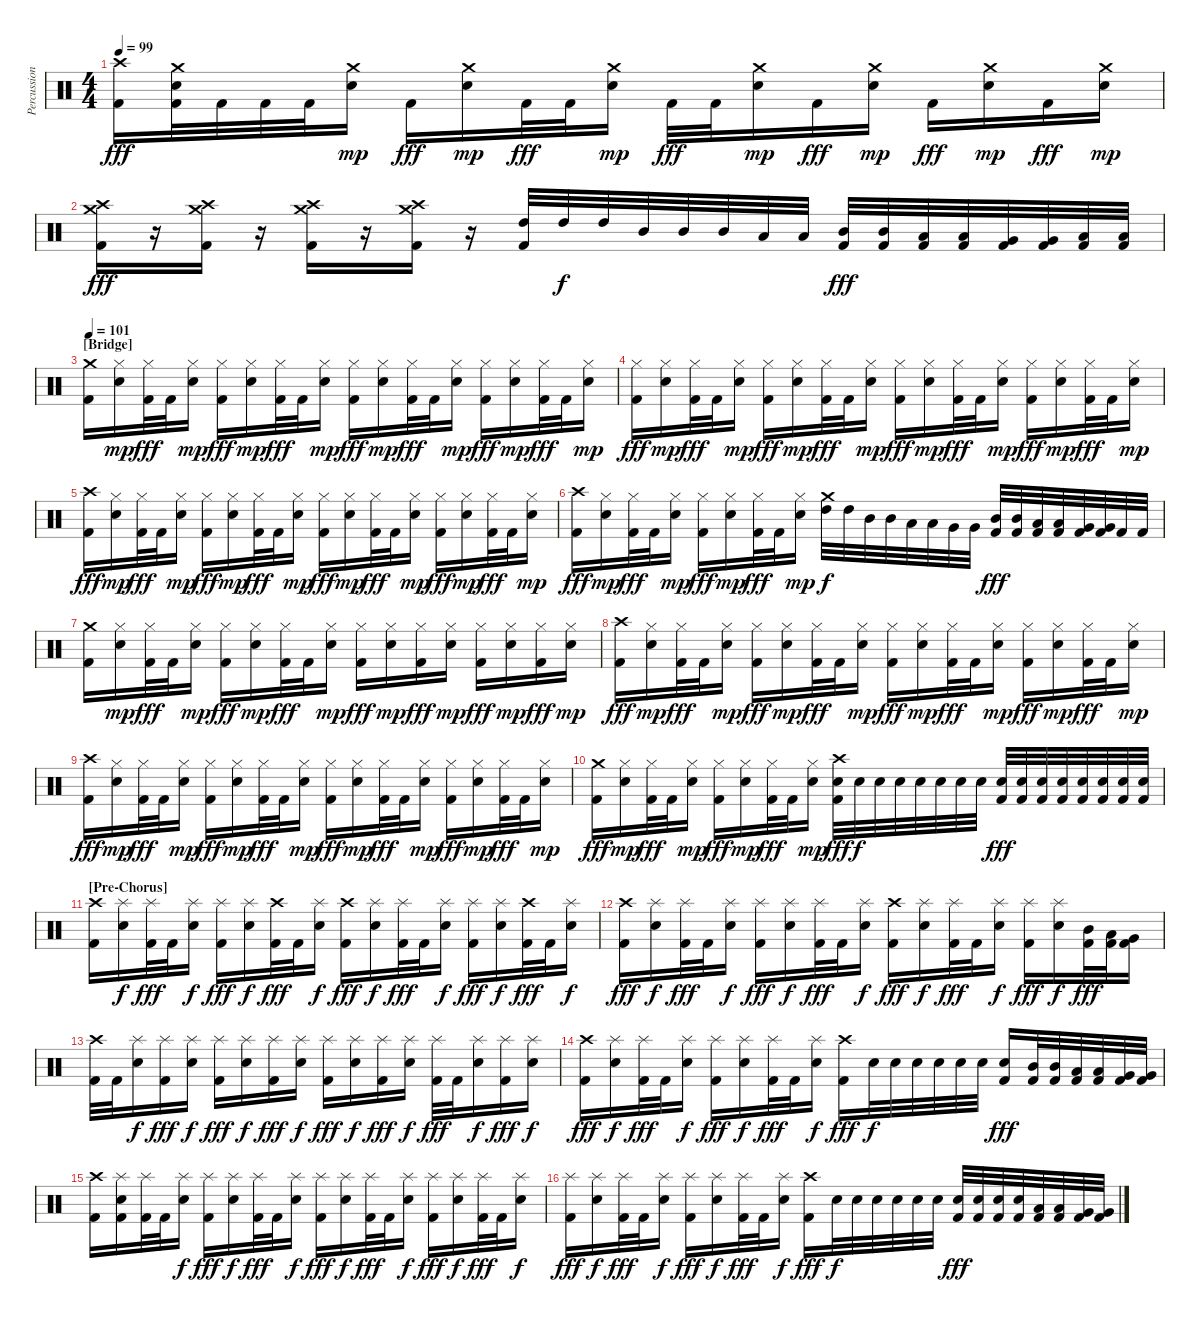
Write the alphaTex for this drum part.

\track ("Percussion" "Percussion") {instrument percussion}
\staff {score}
\articulation defaults
\ts (4 4)
\tempo 99
\clef neutral
\ks c
("Crash high (hit)" "Kick (hit) 2").16{dy fff} ("Crash medium (hit)" "Snare (hit) 2" "Kick (hit) 2").32 "Kick (hit) 2".32 "Kick (hit) 2".32 "Kick (hit) 2".32 ("Crash medium (hit)" "Snare (hit) 2").16{dy mp} "Kick (hit) 2".16{dy fff} ("Crash medium (hit)" "Snare (hit) 2").16{dy mp} "Kick (hit) 2".32{dy fff} "Kick (hit) 2".32 ("Crash medium (hit)" "Snare (hit) 2").16{dy mp} "Kick (hit) 2".32{dy fff} "Kick (hit) 2".32 ("Crash medium (hit)" "Snare (hit) 2").16{dy mp} "Kick (hit) 2".16{dy fff} ("Crash medium (hit)" "Snare (hit) 2").16{dy mp} "Kick (hit) 2".16{dy fff} ("Crash medium (hit)" "Snare (hit) 2").16{dy mp} "Kick (hit) 2".16{dy fff} ("Crash medium (hit)" "Snare (hit) 2").16{dy mp} |
("Crash high (hit)" "Crash medium (hit)" "Kick (hit) 2").16{dy fff} r.16 ("Crash high (hit)" "Crash medium (hit)" "Kick (hit) 2").16 r.16 ("Crash high (hit)" "Crash medium (hit)" "Kick (hit) 2").16 r.16 ("Crash high (hit)" "Crash medium (hit)" "Kick (hit) 2").16 r.16 ("High Tom (hit)" "Kick (hit) 2").32 "High Tom (hit)".32{dy f} "High Tom (hit)".32 "Mid Tom (hit)".32 "Mid Tom (hit)".32 "Mid Tom (hit)".32 "Low Tom (hit)".32 "Low Tom (hit)".32 ("Mid Tom (hit)" "Kick (hit) 2").32{dy fff} ("Mid Tom (hit)" "Kick (hit) 2").32 ("Low Tom (hit)" "Kick (hit) 2").32 ("Low Tom (hit)" "Kick (hit) 2").32 ("Very Low Tom (hit)" "Kick (hit) 2").32 ("Very Low Tom (hit)" "Kick (hit) 2").32 ("Low Floor Tom (hit)" "Kick (hit) 2").32 ("Low Floor Tom (hit)" "Kick (hit) 2").32 |
\section ("" "[Bridge]")
\tempo 101
("Crash medium (hit)" "Kick (hit) 2").16 ("Hi-Hat (closed)" "Snare (hit) 2").16{dy mp} ("Hi-Hat (closed)" "Kick (hit) 2").32{dy fff} "Kick (hit) 2".32 ("Hi-Hat (closed)" "Snare (hit) 2").16{dy mp} ("Hi-Hat (closed)" "Kick (hit) 2").16{dy fff} ("Hi-Hat (closed)" "Snare (hit) 2").16{dy mp} ("Hi-Hat (closed)" "Kick (hit) 2").32{dy fff} "Kick (hit) 2".32 ("Hi-Hat (closed)" "Snare (hit) 2").16{dy mp} ("Hi-Hat (closed)" "Kick (hit) 2").16{dy fff} ("Hi-Hat (closed)" "Snare (hit) 2").16{dy mp} ("Hi-Hat (closed)" "Kick (hit) 2").32{dy fff} "Kick (hit) 2".32 ("Hi-Hat (closed)" "Snare (hit) 2").16{dy mp} ("Hi-Hat (closed)" "Kick (hit) 2").16{dy fff} ("Hi-Hat (closed)" "Snare (hit) 2").16{dy mp} ("Hi-Hat (closed)" "Kick (hit) 2").32{dy fff} "Kick (hit) 2".32 ("Hi-Hat (closed)" "Snare (hit) 2").16{dy mp} |
("Hi-Hat (closed)" "Kick (hit) 2").16{dy fff} ("Hi-Hat (closed)" "Snare (hit) 2").16{dy mp} ("Hi-Hat (closed)" "Kick (hit) 2").32{dy fff} "Kick (hit) 2".32 ("Hi-Hat (closed)" "Snare (hit) 2").16{dy mp} ("Hi-Hat (closed)" "Kick (hit) 2").16{dy fff} ("Hi-Hat (closed)" "Snare (hit) 2").16{dy mp} ("Hi-Hat (closed)" "Kick (hit) 2").32{dy fff} "Kick (hit) 2".32 ("Hi-Hat (closed)" "Snare (hit) 2").16{dy mp} ("Hi-Hat (closed)" "Kick (hit) 2").16{dy fff} ("Hi-Hat (closed)" "Snare (hit) 2").16{dy mp} ("Hi-Hat (closed)" "Kick (hit) 2").32{dy fff} "Kick (hit) 2".32 ("Hi-Hat (closed)" "Snare (hit) 2").16{dy mp} ("Hi-Hat (closed)" "Kick (hit) 2").16{dy fff} ("Hi-Hat (closed)" "Snare (hit) 2").16{dy mp} ("Hi-Hat (closed)" "Kick (hit) 2").32{dy fff} "Kick (hit) 2".32 ("Hi-Hat (closed)" "Snare (hit) 2").16{dy mp} |
("Crash high (hit)" "Kick (hit) 2").16{dy fff} ("Hi-Hat (closed)" "Snare (hit) 2").16{dy mp} ("Hi-Hat (closed)" "Kick (hit) 2").32{dy fff} "Kick (hit) 2".32 ("Hi-Hat (closed)" "Snare (hit) 2").16{dy mp} ("Hi-Hat (closed)" "Kick (hit) 2").16{dy fff} ("Hi-Hat (closed)" "Snare (hit) 2").16{dy mp} ("Hi-Hat (closed)" "Kick (hit) 2").32{dy fff} "Kick (hit) 2".32 ("Hi-Hat (closed)" "Snare (hit) 2").16{dy mp} ("Hi-Hat (closed)" "Kick (hit) 2").16{dy fff} ("Hi-Hat (closed)" "Snare (hit) 2").16{dy mp} ("Hi-Hat (closed)" "Kick (hit) 2").32{dy fff} "Kick (hit) 2".32 ("Hi-Hat (closed)" "Snare (hit) 2").16{dy mp} ("Hi-Hat (closed)" "Kick (hit) 2").16{dy fff} ("Hi-Hat (closed)" "Snare (hit) 2").16{dy mp} ("Hi-Hat (closed)" "Kick (hit) 2").32{dy fff} "Kick (hit) 2".32 ("Hi-Hat (closed)" "Snare (hit) 2").16{dy mp} |
("Crash high (hit)" "Kick (hit) 2").16{dy fff} ("Hi-Hat (closed)" "Snare (hit) 2").16{dy mp} ("Hi-Hat (closed)" "Kick (hit) 2").32{dy fff} "Kick (hit) 2".32 ("Hi-Hat (closed)" "Snare (hit) 2").16{dy mp} ("Hi-Hat (closed)" "Kick (hit) 2").16{dy fff} ("Hi-Hat (closed)" "Snare (hit) 2").16{dy mp} ("Hi-Hat (closed)" "Kick (hit) 2").32{dy fff} "Kick (hit) 2".32 ("Hi-Hat (closed)" "Snare (hit) 2").16{dy mp} ("Crash medium (hit)" "High Tom (hit)").32{dy f} "High Tom (hit)".32 "Mid Tom (hit)".32 "Mid Tom (hit)".32 "Low Tom (hit)".32 "Low Tom (hit)".32 "Very Low Tom (hit)".32 "Very Low Tom (hit)".32 ("Mid Tom (hit)" "Kick (hit) 2").32{dy fff} ("Mid Tom (hit)" "Kick (hit) 2").32 ("Low Tom (hit)" "Kick (hit) 2").32 ("Low Tom (hit)" "Kick (hit) 2").32 ("Very Low Tom (hit)" "Kick (hit) 2").32 ("Very Low Tom (hit)" "Kick (hit) 2").32 "Kick (hit) 2".32 "Kick (hit) 2".32 |
("Crash medium (hit)" "Kick (hit) 2").16 ("Hi-Hat (closed)" "Snare (hit) 2").16{dy mp} ("Hi-Hat (closed)" "Kick (hit) 2").32{dy fff} "Kick (hit) 2".32 ("Hi-Hat (closed)" "Snare (hit) 2").16{dy mp} ("Hi-Hat (closed)" "Kick (hit) 2").16{dy fff} ("Hi-Hat (closed)" "Snare (hit) 2").16{dy mp} ("Hi-Hat (closed)" "Kick (hit) 2").32{dy fff} "Kick (hit) 2".32 ("Hi-Hat (closed)" "Snare (hit) 2").16{dy mp} ("Hi-Hat (closed)" "Kick (hit) 2").16{dy fff} ("Hi-Hat (closed)" "Snare (hit) 2").16{dy mp} ("Hi-Hat (closed)" "Kick (hit) 2").16{dy fff} ("Hi-Hat (closed)" "Snare (hit) 2").16{dy mp} ("Hi-Hat (closed)" "Kick (hit) 2").16{dy fff} ("Hi-Hat (closed)" "Snare (hit) 2").16{dy mp} ("Hi-Hat (closed)" "Kick (hit) 2").16{dy fff} ("Hi-Hat (closed)" "Snare (hit) 2").16{dy mp} |
("Crash high (hit)" "Kick (hit) 2").16{dy fff} ("Hi-Hat (closed)" "Snare (hit) 2").16{dy mp} ("Hi-Hat (closed)" "Kick (hit) 2").32{dy fff} "Kick (hit) 2".32 ("Hi-Hat (closed)" "Snare (hit) 2").16{dy mp} ("Hi-Hat (closed)" "Kick (hit) 2").16{dy fff} ("Hi-Hat (closed)" "Snare (hit) 2").16{dy mp} ("Hi-Hat (closed)" "Kick (hit) 2").32{dy fff} "Kick (hit) 2".32 ("Hi-Hat (closed)" "Snare (hit) 2").16{dy mp} ("Hi-Hat (closed)" "Kick (hit) 2").16{dy fff} ("Hi-Hat (closed)" "Snare (hit) 2").16{dy mp} ("Hi-Hat (closed)" "Kick (hit) 2").32{dy fff} "Kick (hit) 2".32 ("Hi-Hat (closed)" "Snare (hit) 2").16{dy mp} ("Hi-Hat (closed)" "Kick (hit) 2").16{dy fff} ("Hi-Hat (closed)" "Snare (hit) 2").16{dy mp} ("Hi-Hat (closed)" "Kick (hit) 2").32{dy fff} "Kick (hit) 2".32 ("Hi-Hat (closed)" "Snare (hit) 2").16{dy mp} |
("Crash high (hit)" "Kick (hit) 2").16{dy fff} ("Hi-Hat (closed)" "Snare (hit) 2").16{dy mp} ("Hi-Hat (closed)" "Kick (hit) 2").32{dy fff} "Kick (hit) 2".32 ("Hi-Hat (closed)" "Snare (hit) 2").16{dy mp} ("Hi-Hat (closed)" "Kick (hit) 2").16{dy fff} ("Hi-Hat (closed)" "Snare (hit) 2").16{dy mp} ("Hi-Hat (closed)" "Kick (hit) 2").32{dy fff} "Kick (hit) 2".32 ("Hi-Hat (closed)" "Snare (hit) 2").16{dy mp} ("Hi-Hat (closed)" "Kick (hit) 2").16{dy fff} ("Hi-Hat (closed)" "Snare (hit) 2").16{dy mp} ("Hi-Hat (closed)" "Kick (hit) 2").32{dy fff} "Kick (hit) 2".32 ("Hi-Hat (closed)" "Snare (hit) 2").16{dy mp} ("Hi-Hat (closed)" "Kick (hit) 2").16{dy fff} ("Hi-Hat (closed)" "Snare (hit) 2").16{dy mp} ("Hi-Hat (closed)" "Kick (hit) 2").32{dy fff} "Kick (hit) 2".32 ("Hi-Hat (closed)" "Snare (hit) 2").16{dy mp} |
("Crash medium (hit)" "Kick (hit) 2").16{dy fff} ("Hi-Hat (closed)" "Snare (hit) 2").16{dy mp} ("Hi-Hat (closed)" "Kick (hit) 2").32{dy fff} "Kick (hit) 2".32 ("Hi-Hat (closed)" "Snare (hit) 2").16{dy mp} ("Hi-Hat (closed)" "Kick (hit) 2").16{dy fff} ("Hi-Hat (closed)" "Snare (hit) 2").16{dy mp} ("Hi-Hat (closed)" "Kick (hit) 2").32{dy fff} "Kick (hit) 2".32 ("Hi-Hat (closed)" "Snare (hit) 2").16{dy mp} ("Crash high (hit)" "Snare (hit) 2" "Kick (hit) 2").32{dy fff} "Snare (hit) 2".32{dy f} "Snare (hit) 2".32 "Snare (hit) 2".32 "Snare (hit) 2".32 "Snare (hit) 2".32 "Snare (hit) 2".32 "Snare (hit) 2".32 ("Snare (hit) 2" "Kick (hit) 2").32{dy fff} ("Snare (hit) 2" "Kick (hit) 2").32 ("Snare (hit) 2" "Kick (hit) 2").32 ("Snare (hit) 2" "Kick (hit) 2").32 ("Snare (hit) 2" "Kick (hit) 2").32 ("Snare (hit) 2" "Kick (hit) 2").32 ("Snare (hit) 2" "Kick (hit) 2").32 ("Snare (hit) 2" "Kick (hit) 2").32 |
\section ("" "[Pre-Chorus]")
("Crash high (hit)" "Kick (hit) 2").16 ("Splash (hit)" "Snare (hit) 2").16{dy f} ("Splash (hit)" "Kick (hit) 2").32{dy fff} "Kick (hit) 2".32 ("Splash (hit)" "Snare (hit) 2").16{dy f} ("Splash (hit)" "Kick (hit) 2").16{dy fff} ("Splash (hit)" "Snare (hit) 2").16{dy f} ("Crash high (hit)" "Kick (hit) 2").32{dy fff} "Kick (hit) 2".32 ("Splash (hit)" "Snare (hit) 2").16{dy f} ("Crash high (hit)" "Kick (hit) 2").16{dy fff} ("Splash (hit)" "Snare (hit) 2").16{dy f} ("Splash (hit)" "Kick (hit) 2").32{dy fff} "Kick (hit) 2".32 ("Splash (hit)" "Snare (hit) 2").16{dy f} ("Splash (hit)" "Kick (hit) 2").16{dy fff} ("Splash (hit)" "Snare (hit) 2").16{dy f} ("Crash high (hit)" "Kick (hit) 2").32{dy fff} "Kick (hit) 2".32 ("Splash (hit)" "Snare (hit) 2").16{dy f} |
("Crash high (hit)" "Kick (hit) 2").16{dy fff} ("Splash (hit)" "Snare (hit) 2").16{dy f} ("Splash (hit)" "Kick (hit) 2").32{dy fff} "Kick (hit) 2".32 ("Splash (hit)" "Snare (hit) 2").16{dy f} ("Splash (hit)" "Kick (hit) 2").16{dy fff} ("Splash (hit)" "Snare (hit) 2").16{dy f} ("Splash (hit)" "Kick (hit) 2").32{dy fff} "Kick (hit) 2".32 ("Splash (hit)" "Snare (hit) 2").16{dy f} ("Crash high (hit)" "Kick (hit) 2").16{dy fff} ("Splash (hit)" "Snare (hit) 2").16{dy f} ("Splash (hit)" "Kick (hit) 2").32{dy fff} "Kick (hit) 2".32 ("Splash (hit)" "Snare (hit) 2").16{dy f} ("Splash (hit)" "Kick (hit) 2").16{dy fff} ("Splash (hit)" "Snare (hit) 2").16{dy f} ("Mid Tom (hit)" "Kick (hit) 2").32{dy fff} ("Low Tom (hit)" "Kick (hit) 2").32 ("Very Low Tom (hit)" "Kick (hit) 2").16 |
("Crash high (hit)" "Kick (hit) 2").32 "Kick (hit) 2".32 ("Splash (hit)" "Snare (hit) 2").16{dy f} ("Splash (hit)" "Kick (hit) 2").16{dy fff} ("Splash (hit)" "Snare (hit) 2").16{dy f} ("Splash (hit)" "Kick (hit) 2").16{dy fff} ("Splash (hit)" "Snare (hit) 2").16{dy f} ("Splash (hit)" "Kick (hit) 2").16{dy fff} ("Splash (hit)" "Snare (hit) 2").16{dy f} ("Splash (hit)" "Kick (hit) 2").16{dy fff} ("Splash (hit)" "Snare (hit) 2").16{dy f} ("Splash (hit)" "Kick (hit) 2").16{dy fff} ("Splash (hit)" "Snare (hit) 2").16{dy f} ("Splash (hit)" "Kick (hit) 2").32{dy fff} "Kick (hit) 2".32 ("Splash (hit)" "Snare (hit) 2").16{dy f} ("Splash (hit)" "Kick (hit) 2").16{dy fff} ("Splash (hit)" "Snare (hit) 2").16{dy f} |
("Crash high (hit)" "Kick (hit) 2").16{dy fff} ("Splash (hit)" "Snare (hit) 2").16{dy f} ("Splash (hit)" "Kick (hit) 2").32{dy fff} "Kick (hit) 2".32 ("Splash (hit)" "Snare (hit) 2").16{dy f} ("Splash (hit)" "Kick (hit) 2").16{dy fff} ("Splash (hit)" "Snare (hit) 2").16{dy f} ("Splash (hit)" "Kick (hit) 2").32{dy fff} "Kick (hit) 2".32 ("Splash (hit)" "Snare (hit) 2").16{dy f} ("Crash high (hit)" "Kick (hit) 2").16{dy fff} "Snare (hit) 2".32{dy f} "Snare (hit) 2".32 "Snare (hit) 2".32 "Snare (hit) 2".32 "Snare (hit) 2".32 "Snare (hit) 2".32 ("Snare (hit) 2" "Kick (hit) 2").16{dy fff} ("Mid Tom (hit)" "Kick (hit) 2").32 ("Mid Tom (hit)" "Kick (hit) 2").32 ("Low Tom (hit)" "Kick (hit) 2").32 ("Low Tom (hit)" "Kick (hit) 2").32 ("Very Low Tom (hit)" "Kick (hit) 2").32 ("Very Low Tom (hit)" "Kick (hit) 2").32 |
("Crash high (hit)" "Kick (hit) 2").16 ("Splash (hit)" "Snare (hit) 2" "Kick (hit) 2").16 ("Splash (hit)" "Kick (hit) 2").32 "Kick (hit) 2".32 ("Splash (hit)" "Snare (hit) 2").16{dy f} ("Splash (hit)" "Kick (hit) 2").16{dy fff} ("Splash (hit)" "Snare (hit) 2").16{dy f} ("Splash (hit)" "Kick (hit) 2").32{dy fff} "Kick (hit) 2".32 ("Splash (hit)" "Snare (hit) 2").16{dy f} ("Splash (hit)" "Kick (hit) 2").16{dy fff} ("Splash (hit)" "Snare (hit) 2").16{dy f} ("Splash (hit)" "Kick (hit) 2").32{dy fff} "Kick (hit) 2".32 ("Splash (hit)" "Snare (hit) 2").16{dy f} ("Splash (hit)" "Kick (hit) 2").16{dy fff} ("Splash (hit)" "Snare (hit) 2").16{dy f} ("Splash (hit)" "Kick (hit) 2").32{dy fff} "Kick (hit) 2".32 ("Splash (hit)" "Snare (hit) 2").16{dy f} |
("Splash (hit)" "Kick (hit) 2").16{dy fff} ("Splash (hit)" "Snare (hit) 2").16{dy f} ("Splash (hit)" "Kick (hit) 2").32{dy fff} "Kick (hit) 2".32 ("Splash (hit)" "Snare (hit) 2").16{dy f} ("Splash (hit)" "Kick (hit) 2").16{dy fff} ("Splash (hit)" "Snare (hit) 2").16{dy f} ("Splash (hit)" "Kick (hit) 2").32{dy fff} "Kick (hit) 2".32 ("Splash (hit)" "Snare (hit) 2").16{dy f} ("Crash high (hit)" "Kick (hit) 2").16{dy fff} "Snare (hit) 2".32{dy f} "Snare (hit) 2".32 "Snare (hit) 2".32 "Snare (hit) 2".32 "Snare (hit) 2".32 "Snare (hit) 2".32 ("Snare (hit) 2" "Kick (hit) 2").32{dy fff} ("Snare (hit) 2" "Kick (hit) 2").32 ("Snare (hit) 2" "Kick (hit) 2").32 ("Snare (hit) 2" "Kick (hit) 2").32 ("Low Tom (hit)" "Kick (hit) 2").32 ("Low Tom (hit)" "Kick (hit) 2").32 ("Very Low Tom (hit)" "Kick (hit) 2").32 ("Very Low Tom (hit)" "Kick (hit) 2").32
